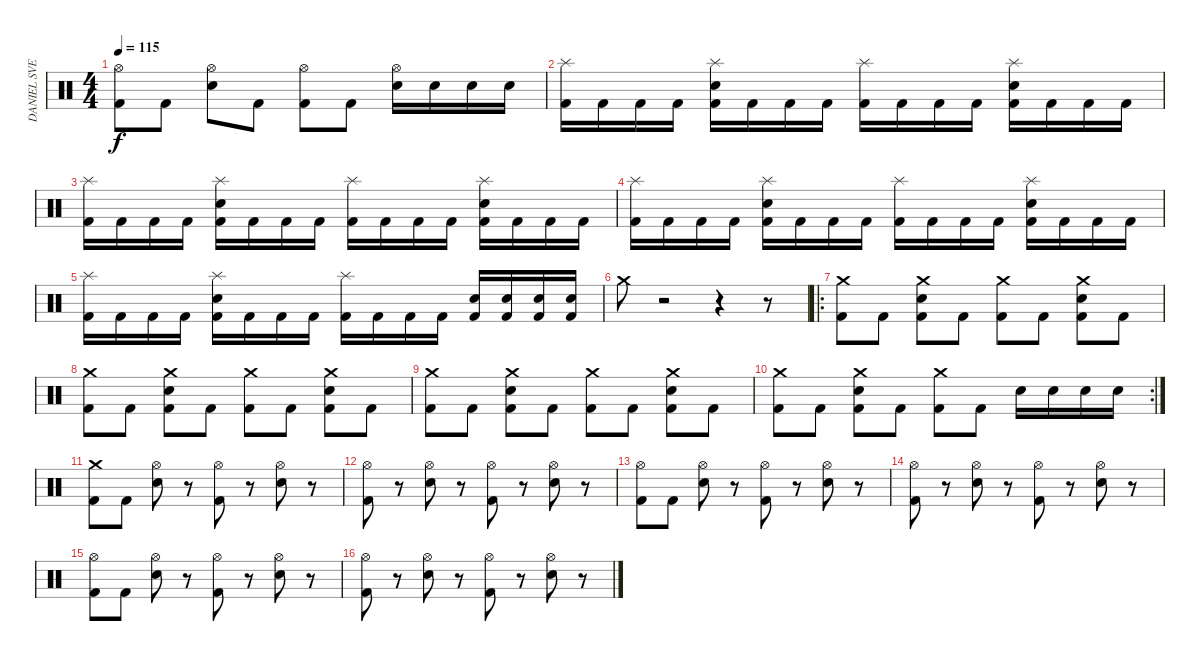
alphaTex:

\track ("DANIEL SVENSSON" "DANIEL SVE") {instrument percussion}
\staff {score}
\articulation defaults
\ts (4 4)
\tempo 115
\clef neutral
\ks c
("Hi-Hat (open)" "Kick (hit) 2").8{dy f} "Kick (hit) 2".8 ("Hi-Hat (open)" "Snare (hit) 2").8 "Kick (hit) 2".8 ("Hi-Hat (open)" "Kick (hit) 2").8 "Kick (hit) 2".8 ("Hi-Hat (open)" "Snare (hit) 2").16 "Snare (hit) 2".16 "Snare (hit) 2".16 "Snare (hit) 2".16 |
("Splash (hit)" "Kick (hit) 2").16 "Kick (hit) 2".16 "Kick (hit) 2".16 "Kick (hit) 2".16 ("Splash (hit)" "Snare (hit) 2" "Kick (hit) 2").16 "Kick (hit) 2".16 "Kick (hit) 2".16 "Kick (hit) 2".16 ("Splash (hit)" "Kick (hit) 2").16 "Kick (hit) 2".16 "Kick (hit) 2".16 "Kick (hit) 2".16 ("Splash (hit)" "Snare (hit) 2" "Kick (hit) 2").16 "Kick (hit) 2".16 "Kick (hit) 2".16 "Kick (hit) 2".16 |
("Splash (hit)" "Kick (hit) 2").16 "Kick (hit) 2".16 "Kick (hit) 2".16 "Kick (hit) 2".16 ("Splash (hit)" "Snare (hit) 2" "Kick (hit) 2").16 "Kick (hit) 2".16 "Kick (hit) 2".16 "Kick (hit) 2".16 ("Splash (hit)" "Kick (hit) 2").16 "Kick (hit) 2".16 "Kick (hit) 2".16 "Kick (hit) 2".16 ("Splash (hit)" "Snare (hit) 2" "Kick (hit) 2").16 "Kick (hit) 2".16 "Kick (hit) 2".16 "Kick (hit) 2".16 |
("Splash (hit)" "Kick (hit) 2").16 "Kick (hit) 2".16 "Kick (hit) 2".16 "Kick (hit) 2".16 ("Splash (hit)" "Snare (hit) 2" "Kick (hit) 2").16 "Kick (hit) 2".16 "Kick (hit) 2".16 "Kick (hit) 2".16 ("Splash (hit)" "Kick (hit) 2").16 "Kick (hit) 2".16 "Kick (hit) 2".16 "Kick (hit) 2".16 ("Splash (hit)" "Snare (hit) 2" "Kick (hit) 2").16 "Kick (hit) 2".16 "Kick (hit) 2".16 "Kick (hit) 2".16 |
("Splash (hit)" "Kick (hit) 2").16 "Kick (hit) 2".16 "Kick (hit) 2".16 "Kick (hit) 2".16 ("Splash (hit)" "Snare (hit) 2" "Kick (hit) 2").16 "Kick (hit) 2".16 "Kick (hit) 2".16 "Kick (hit) 2".16 ("Splash (hit)" "Kick (hit) 2").16 "Kick (hit) 2".16 "Kick (hit) 2".16 "Kick (hit) 2".16 ("Snare (hit) 2" "Kick (hit) 2").16 ("Snare (hit) 2" "Kick (hit) 2").16 ("Snare (hit) 2" "Kick (hit) 2").16 ("Snare (hit) 2" "Kick (hit) 2").16 |
"Crash medium (hit)".8 r.2 r.4 r.8 |
\ro
("Crash medium (hit)" "Kick (hit) 2").8 "Kick (hit) 2".8 ("Crash medium (hit)" "Snare (hit) 2" "Kick (hit) 2").8 "Kick (hit) 2".8 ("Crash medium (hit)" "Kick (hit) 2").8 "Kick (hit) 2".8 ("Crash medium (hit)" "Snare (hit) 2" "Kick (hit) 2").8 "Kick (hit) 2".8 |
("Crash medium (hit)" "Kick (hit) 2").8 "Kick (hit) 2".8 ("Crash medium (hit)" "Snare (hit) 2" "Kick (hit) 2").8 "Kick (hit) 2".8 ("Crash medium (hit)" "Kick (hit) 2").8 "Kick (hit) 2".8 ("Crash medium (hit)" "Snare (hit) 2" "Kick (hit) 2").8 "Kick (hit) 2".8 |
("Crash medium (hit)" "Kick (hit) 2").8 "Kick (hit) 2".8 ("Crash medium (hit)" "Snare (hit) 2" "Kick (hit) 2").8 "Kick (hit) 2".8 ("Crash medium (hit)" "Kick (hit) 2").8 "Kick (hit) 2".8 ("Crash medium (hit)" "Snare (hit) 2" "Kick (hit) 2").8 "Kick (hit) 2".8 |
\rc 2
("Crash medium (hit)" "Kick (hit) 2").8 "Kick (hit) 2".8 ("Crash medium (hit)" "Snare (hit) 2" "Kick (hit) 2").8 "Kick (hit) 2".8 ("Crash medium (hit)" "Kick (hit) 2").8 "Kick (hit) 2".8 "Snare (hit) 2".16 "Snare (hit) 2".16 "Snare (hit) 2".16 "Snare (hit) 2".16 |
("Crash medium (hit)" "Kick (hit) 2").8 "Kick (hit) 2".8 ("Hi-Hat (open)" "Snare (hit) 2").8 r.8 ("Hi-Hat (open)" "Kick (hit) 2").8 r.8 ("Hi-Hat (open)" "Snare (hit) 2").8 r.8 |
("Hi-Hat (open)" "Kick (hit) 2").8 r.8 ("Hi-Hat (open)" "Snare (hit) 2").8 r.8 ("Hi-Hat (open)" "Kick (hit) 2").8 r.8 ("Hi-Hat (open)" "Snare (hit) 2").8 r.8 |
("Hi-Hat (open)" "Kick (hit) 2").8 "Kick (hit) 2".8 ("Hi-Hat (open)" "Snare (hit) 2").8 r.8 ("Hi-Hat (open)" "Kick (hit) 2").8 r.8 ("Hi-Hat (open)" "Snare (hit) 2").8 r.8 |
("Hi-Hat (open)" "Kick (hit) 2").8 r.8 ("Hi-Hat (open)" "Snare (hit) 2").8 r.8 ("Hi-Hat (open)" "Kick (hit) 2").8 r.8 ("Hi-Hat (open)" "Snare (hit) 2").8 r.8 |
("Hi-Hat (open)" "Kick (hit) 2").8 "Kick (hit) 2".8 ("Hi-Hat (open)" "Snare (hit) 2").8 r.8 ("Hi-Hat (open)" "Kick (hit) 2").8 r.8 ("Hi-Hat (open)" "Snare (hit) 2").8 r.8 |
("Hi-Hat (open)" "Kick (hit) 2").8 r.8 ("Hi-Hat (open)" "Snare (hit) 2").8 r.8 ("Hi-Hat (open)" "Kick (hit) 2").8 r.8 ("Hi-Hat (open)" "Snare (hit) 2").8 r.8
